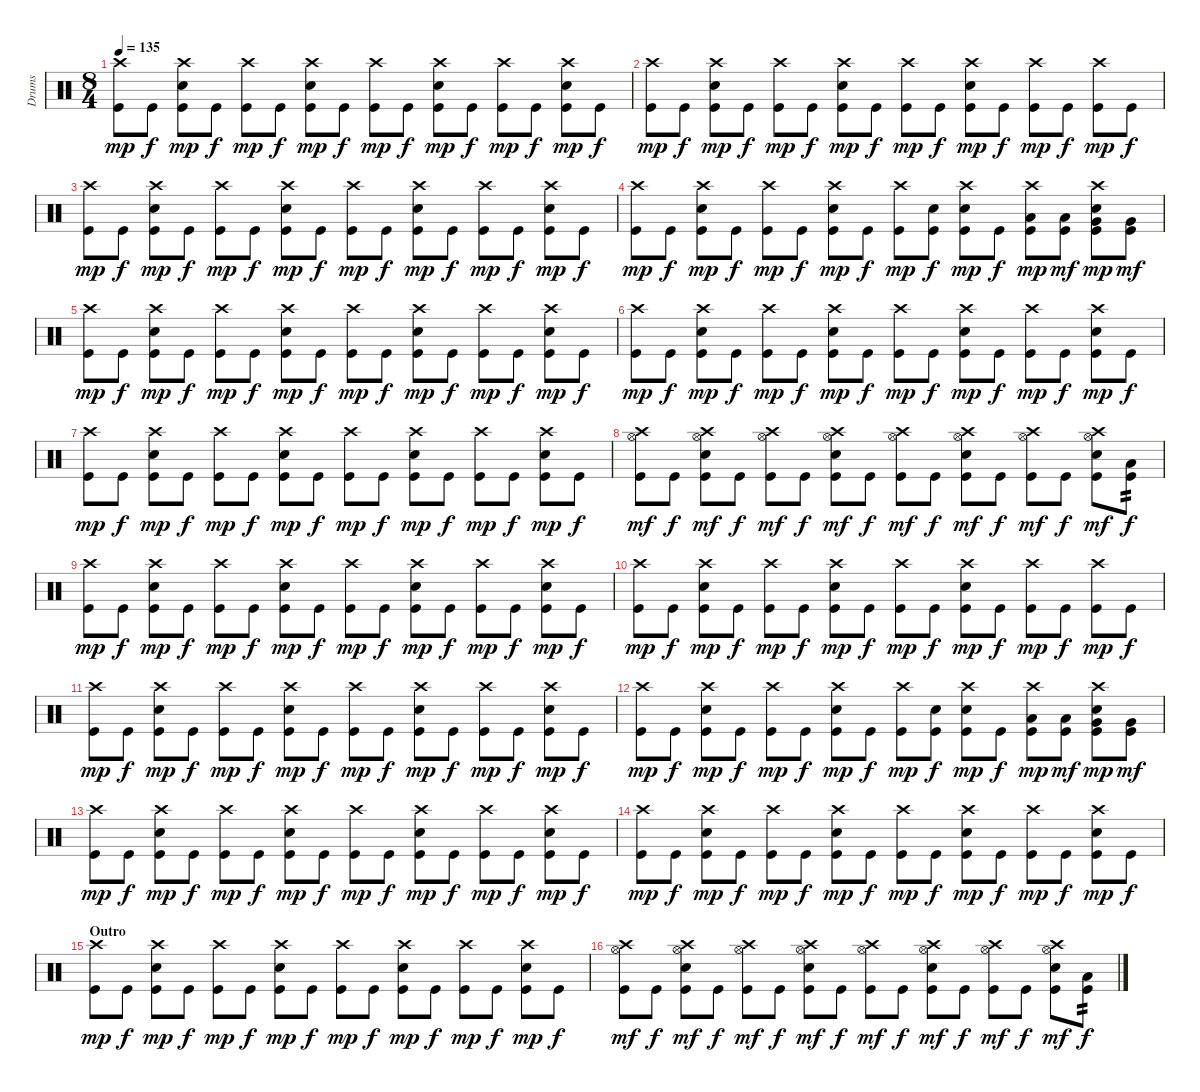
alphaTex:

\track ("Drums" "Drums") {instrument percussion}
\staff {score}
\articulation defaults
\ts (8 4)
\tempo 135
\clef neutral
\ks c
("Crash high (hit)" "Kick (hit)").8{dy mp} "Kick (hit)".8{dy f} ("Crash high (hit)" "Electric Snare (hit)" "Kick (hit)").8{dy mp} "Kick (hit)".8{dy f} ("Crash high (hit)" "Kick (hit)").8{dy mp} "Kick (hit)".8{dy f} ("Crash high (hit)" "Electric Snare (hit)" "Kick (hit)").8{dy mp} "Kick (hit)".8{dy f} ("Crash high (hit)" "Kick (hit)").8{dy mp} "Kick (hit)".8{dy f} ("Crash high (hit)" "Electric Snare (hit)" "Kick (hit)").8{dy mp} "Kick (hit)".8{dy f} ("Crash high (hit)" "Kick (hit)").8{dy mp} "Kick (hit)".8{dy f} ("Crash high (hit)" "Electric Snare (hit)" "Kick (hit)").8{dy mp} "Kick (hit)".8{dy f} |
("Crash high (hit)" "Kick (hit)").8{dy mp} "Kick (hit)".8{dy f} ("Crash high (hit)" "Electric Snare (hit)" "Kick (hit)").8{dy mp} "Kick (hit)".8{dy f} ("Crash high (hit)" "Kick (hit)").8{dy mp} "Kick (hit)".8{dy f} ("Crash high (hit)" "Electric Snare (hit)" "Kick (hit)").8{dy mp} "Kick (hit)".8{dy f} ("Crash high (hit)" "Kick (hit)").8{dy mp} "Kick (hit)".8{dy f} ("Crash high (hit)" "Electric Snare (hit)" "Kick (hit)").8{dy mp} "Kick (hit)".8{dy f} ("Crash high (hit)" "Kick (hit)").8{dy mp} "Kick (hit)".8{dy f} ("Crash high (hit)" "Kick (hit)").8{dy mp} "Kick (hit)".8{dy f} |
("Crash high (hit)" "Kick (hit)").8{dy mp} "Kick (hit)".8{dy f} ("Crash high (hit)" "Electric Snare (hit)" "Kick (hit)").8{dy mp} "Kick (hit)".8{dy f} ("Crash high (hit)" "Kick (hit)").8{dy mp} "Kick (hit)".8{dy f} ("Crash high (hit)" "Electric Snare (hit)" "Kick (hit)").8{dy mp} "Kick (hit)".8{dy f} ("Crash high (hit)" "Kick (hit)").8{dy mp} "Kick (hit)".8{dy f} ("Crash high (hit)" "Electric Snare (hit)" "Kick (hit)").8{dy mp} "Kick (hit)".8{dy f} ("Crash high (hit)" "Kick (hit)").8{dy mp} "Kick (hit)".8{dy f} ("Crash high (hit)" "Electric Snare (hit)" "Kick (hit)").8{dy mp} "Kick (hit)".8{dy f} |
("Crash high (hit)" "Kick (hit)").8{dy mp} "Kick (hit)".8{dy f} ("Crash high (hit)" "Electric Snare (hit)" "Kick (hit)").8{dy mp} "Kick (hit)".8{dy f} ("Crash high (hit)" "Kick (hit)").8{dy mp} "Kick (hit)".8{dy f} ("Crash high (hit)" "Electric Snare (hit)" "Kick (hit)").8{dy mp} "Kick (hit)".8{dy f} ("Crash high (hit)" "Kick (hit)").8{dy mp} ("Electric Snare (hit)" "Kick (hit)").8{dy f} ("Crash high (hit)" "Electric Snare (hit)" "Kick (hit)").8{dy mp} "Kick (hit)".8{dy f} ("Crash high (hit)" "Low Tom (hit)" "Kick (hit)").8{dy mp} ("Low Tom (hit)" "Kick (hit)").8{dy mf} ("Crash high (hit)" "Very Low Tom (hit)" "Electric Snare (hit)" "Kick (hit)").8{dy mp} ("Very Low Tom (hit)" "Kick (hit)").8{dy mf} |
("Crash high (hit)" "Kick (hit)").8{dy mp} "Kick (hit)".8{dy f} ("Crash high (hit)" "Electric Snare (hit)" "Kick (hit)").8{dy mp} "Kick (hit)".8{dy f} ("Crash high (hit)" "Kick (hit)").8{dy mp} "Kick (hit)".8{dy f} ("Crash high (hit)" "Electric Snare (hit)" "Kick (hit)").8{dy mp} "Kick (hit)".8{dy f} ("Crash high (hit)" "Kick (hit)").8{dy mp} "Kick (hit)".8{dy f} ("Crash high (hit)" "Electric Snare (hit)" "Kick (hit)").8{dy mp} "Kick (hit)".8{dy f} ("Crash high (hit)" "Kick (hit)").8{dy mp} "Kick (hit)".8{dy f} ("Crash high (hit)" "Electric Snare (hit)" "Kick (hit)").8{dy mp} "Kick (hit)".8{dy f} |
("Crash high (hit)" "Kick (hit)").8{dy mp} "Kick (hit)".8{dy f} ("Crash high (hit)" "Electric Snare (hit)" "Kick (hit)").8{dy mp} "Kick (hit)".8{dy f} ("Crash high (hit)" "Kick (hit)").8{dy mp} "Kick (hit)".8{dy f} ("Crash high (hit)" "Electric Snare (hit)" "Kick (hit)").8{dy mp} "Kick (hit)".8{dy f} ("Crash high (hit)" "Kick (hit)").8{dy mp} "Kick (hit)".8{dy f} ("Crash high (hit)" "Electric Snare (hit)" "Kick (hit)").8{dy mp} "Kick (hit)".8{dy f} ("Crash high (hit)" "Kick (hit)").8{dy mp} "Kick (hit)".8{dy f} ("Crash high (hit)" "Electric Snare (hit)" "Kick (hit)").8{dy mp} "Kick (hit)".8{dy f} |
("Crash high (hit)" "Kick (hit)").8{dy mp} "Kick (hit)".8{dy f} ("Crash high (hit)" "Electric Snare (hit)" "Kick (hit)").8{dy mp} "Kick (hit)".8{dy f} ("Crash high (hit)" "Kick (hit)").8{dy mp} "Kick (hit)".8{dy f} ("Crash high (hit)" "Electric Snare (hit)" "Kick (hit)").8{dy mp} "Kick (hit)".8{dy f} ("Crash high (hit)" "Kick (hit)").8{dy mp} "Kick (hit)".8{dy f} ("Crash high (hit)" "Electric Snare (hit)" "Kick (hit)").8{dy mp} "Kick (hit)".8{dy f} ("Crash high (hit)" "Kick (hit)").8{dy mp} "Kick (hit)".8{dy f} ("Crash high (hit)" "Electric Snare (hit)" "Kick (hit)").8{dy mp} "Kick (hit)".8{dy f} |
("Crash high (hit)" "Hi-Hat (open)" "Kick (hit)").8{dy mf} "Kick (hit)".8{dy f} ("Crash high (hit)" "Hi-Hat (open)" "Electric Snare (hit)" "Kick (hit)").8{dy mf} "Kick (hit)".8{dy f} ("Crash high (hit)" "Hi-Hat (open)" "Kick (hit)").8{dy mf} "Kick (hit)".8{dy f} ("Crash high (hit)" "Hi-Hat (open)" "Electric Snare (hit)" "Kick (hit)").8{dy mf} "Kick (hit)".8{dy f} ("Crash high (hit)" "Hi-Hat (open)" "Kick (hit)").8{dy mf} "Kick (hit)".8{dy f} ("Crash high (hit)" "Hi-Hat (open)" "Electric Snare (hit)" "Kick (hit)").8{dy mf} "Kick (hit)".8{dy f} ("Crash high (hit)" "Hi-Hat (open)" "Kick (hit)").8{dy mf} "Kick (hit)".8{dy f} ("Crash high (hit)" "Hi-Hat (open)" "Electric Snare (hit)" "Kick (hit)").8{dy mf} ("Low Tom (hit)" "Kick (hit)").8{tp 2 dy f} |
("Crash high (hit)" "Kick (hit)").8{dy mp} "Kick (hit)".8{dy f} ("Crash high (hit)" "Electric Snare (hit)" "Kick (hit)").8{dy mp} "Kick (hit)".8{dy f} ("Crash high (hit)" "Kick (hit)").8{dy mp} "Kick (hit)".8{dy f} ("Crash high (hit)" "Electric Snare (hit)" "Kick (hit)").8{dy mp} "Kick (hit)".8{dy f} ("Crash high (hit)" "Kick (hit)").8{dy mp} "Kick (hit)".8{dy f} ("Crash high (hit)" "Electric Snare (hit)" "Kick (hit)").8{dy mp} "Kick (hit)".8{dy f} ("Crash high (hit)" "Kick (hit)").8{dy mp} "Kick (hit)".8{dy f} ("Crash high (hit)" "Electric Snare (hit)" "Kick (hit)").8{dy mp} "Kick (hit)".8{dy f} |
("Crash high (hit)" "Kick (hit)").8{dy mp} "Kick (hit)".8{dy f} ("Crash high (hit)" "Electric Snare (hit)" "Kick (hit)").8{dy mp} "Kick (hit)".8{dy f} ("Crash high (hit)" "Kick (hit)").8{dy mp} "Kick (hit)".8{dy f} ("Crash high (hit)" "Electric Snare (hit)" "Kick (hit)").8{dy mp} "Kick (hit)".8{dy f} ("Crash high (hit)" "Kick (hit)").8{dy mp} "Kick (hit)".8{dy f} ("Crash high (hit)" "Electric Snare (hit)" "Kick (hit)").8{dy mp} "Kick (hit)".8{dy f} ("Crash high (hit)" "Kick (hit)").8{dy mp} "Kick (hit)".8{dy f} ("Crash high (hit)" "Kick (hit)").8{dy mp} "Kick (hit)".8{dy f} |
("Crash high (hit)" "Kick (hit)").8{dy mp} "Kick (hit)".8{dy f} ("Crash high (hit)" "Electric Snare (hit)" "Kick (hit)").8{dy mp} "Kick (hit)".8{dy f} ("Crash high (hit)" "Kick (hit)").8{dy mp} "Kick (hit)".8{dy f} ("Crash high (hit)" "Electric Snare (hit)" "Kick (hit)").8{dy mp} "Kick (hit)".8{dy f} ("Crash high (hit)" "Kick (hit)").8{dy mp} "Kick (hit)".8{dy f} ("Crash high (hit)" "Electric Snare (hit)" "Kick (hit)").8{dy mp} "Kick (hit)".8{dy f} ("Crash high (hit)" "Kick (hit)").8{dy mp} "Kick (hit)".8{dy f} ("Crash high (hit)" "Electric Snare (hit)" "Kick (hit)").8{dy mp} "Kick (hit)".8{dy f} |
("Crash high (hit)" "Kick (hit)").8{dy mp} "Kick (hit)".8{dy f} ("Crash high (hit)" "Electric Snare (hit)" "Kick (hit)").8{dy mp} "Kick (hit)".8{dy f} ("Crash high (hit)" "Kick (hit)").8{dy mp} "Kick (hit)".8{dy f} ("Crash high (hit)" "Electric Snare (hit)" "Kick (hit)").8{dy mp} "Kick (hit)".8{dy f} ("Crash high (hit)" "Kick (hit)").8{dy mp} ("Electric Snare (hit)" "Kick (hit)").8{dy f} ("Crash high (hit)" "Electric Snare (hit)" "Kick (hit)").8{dy mp} "Kick (hit)".8{dy f} ("Crash high (hit)" "Low Tom (hit)" "Kick (hit)").8{dy mp} ("Low Tom (hit)" "Kick (hit)").8{dy mf} ("Crash high (hit)" "Very Low Tom (hit)" "Electric Snare (hit)" "Kick (hit)").8{dy mp} ("Very Low Tom (hit)" "Kick (hit)").8{dy mf} |
("Crash high (hit)" "Kick (hit)").8{dy mp} "Kick (hit)".8{dy f} ("Crash high (hit)" "Electric Snare (hit)" "Kick (hit)").8{dy mp} "Kick (hit)".8{dy f} ("Crash high (hit)" "Kick (hit)").8{dy mp} "Kick (hit)".8{dy f} ("Crash high (hit)" "Electric Snare (hit)" "Kick (hit)").8{dy mp} "Kick (hit)".8{dy f} ("Crash high (hit)" "Kick (hit)").8{dy mp} "Kick (hit)".8{dy f} ("Crash high (hit)" "Electric Snare (hit)" "Kick (hit)").8{dy mp} "Kick (hit)".8{dy f} ("Crash high (hit)" "Kick (hit)").8{dy mp} "Kick (hit)".8{dy f} ("Crash high (hit)" "Electric Snare (hit)" "Kick (hit)").8{dy mp} "Kick (hit)".8{dy f} |
("Crash high (hit)" "Kick (hit)").8{dy mp} "Kick (hit)".8{dy f} ("Crash high (hit)" "Electric Snare (hit)" "Kick (hit)").8{dy mp} "Kick (hit)".8{dy f} ("Crash high (hit)" "Kick (hit)").8{dy mp} "Kick (hit)".8{dy f} ("Crash high (hit)" "Electric Snare (hit)" "Kick (hit)").8{dy mp} "Kick (hit)".8{dy f} ("Crash high (hit)" "Kick (hit)").8{dy mp} "Kick (hit)".8{dy f} ("Crash high (hit)" "Electric Snare (hit)" "Kick (hit)").8{dy mp} "Kick (hit)".8{dy f} ("Crash high (hit)" "Kick (hit)").8{dy mp} "Kick (hit)".8{dy f} ("Crash high (hit)" "Electric Snare (hit)" "Kick (hit)").8{dy mp} "Kick (hit)".8{dy f} |
\section ("" "Outro")
("Crash high (hit)" "Kick (hit)").8{dy mp} "Kick (hit)".8{dy f} ("Crash high (hit)" "Electric Snare (hit)" "Kick (hit)").8{dy mp} "Kick (hit)".8{dy f} ("Crash high (hit)" "Kick (hit)").8{dy mp} "Kick (hit)".8{dy f} ("Crash high (hit)" "Electric Snare (hit)" "Kick (hit)").8{dy mp} "Kick (hit)".8{dy f} ("Crash high (hit)" "Kick (hit)").8{dy mp} "Kick (hit)".8{dy f} ("Crash high (hit)" "Electric Snare (hit)" "Kick (hit)").8{dy mp} "Kick (hit)".8{dy f} ("Crash high (hit)" "Kick (hit)").8{dy mp} "Kick (hit)".8{dy f} ("Crash high (hit)" "Electric Snare (hit)" "Kick (hit)").8{dy mp} "Kick (hit)".8{dy f} |
("Crash high (hit)" "Hi-Hat (open)" "Kick (hit)").8{dy mf} "Kick (hit)".8{dy f} ("Crash high (hit)" "Hi-Hat (open)" "Electric Snare (hit)" "Kick (hit)").8{dy mf} "Kick (hit)".8{dy f} ("Crash high (hit)" "Hi-Hat (open)" "Kick (hit)").8{dy mf} "Kick (hit)".8{dy f} ("Crash high (hit)" "Hi-Hat (open)" "Electric Snare (hit)" "Kick (hit)").8{dy mf} "Kick (hit)".8{dy f} ("Crash high (hit)" "Hi-Hat (open)" "Kick (hit)").8{dy mf} "Kick (hit)".8{dy f} ("Crash high (hit)" "Hi-Hat (open)" "Electric Snare (hit)" "Kick (hit)").8{dy mf} "Kick (hit)".8{dy f} ("Crash high (hit)" "Hi-Hat (open)" "Kick (hit)").8{dy mf} "Kick (hit)".8{dy f} ("Crash high (hit)" "Hi-Hat (open)" "Electric Snare (hit)" "Kick (hit)").8{dy mf} ("Low Tom (hit)" "Kick (hit)").8{tp 2 dy f}
